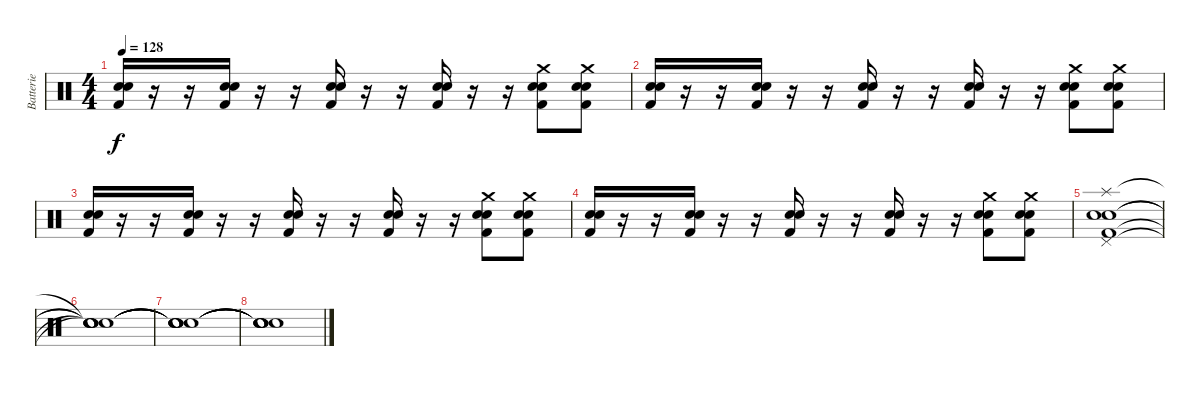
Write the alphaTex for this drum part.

\track ("Batterie" "Batterie") {instrument percussion}
\staff {score}
\articulation defaults
\ts (4 4)
\tempo 128
\clef neutral
\ks c
("Electric Snare (hit)" "Snare (hit) 2" "Kick (hit) 2").16{dy f} r.16 r.16 ("Electric Snare (hit)" "Snare (hit) 2" "Kick (hit) 2").16 r.16 r.16 ("Electric Snare (hit)" "Snare (hit) 2" "Kick (hit) 2").16 r.16 r.16 ("Electric Snare (hit)" "Snare (hit) 2" "Kick (hit) 2").16 r.16 r.16 ("Crash medium (hit)" "Snare (hit) 2" "Electric Snare (hit)" "Kick (hit) 2").8 ("Crash medium (hit)" "Snare (hit) 2" "Electric Snare (hit)" "Kick (hit) 2").8 |
("Electric Snare (hit)" "Snare (hit) 2" "Kick (hit) 2").16 r.16 r.16 ("Electric Snare (hit)" "Snare (hit) 2" "Kick (hit) 2").16 r.16 r.16 ("Electric Snare (hit)" "Snare (hit) 2" "Kick (hit) 2").16 r.16 r.16 ("Electric Snare (hit)" "Snare (hit) 2" "Kick (hit) 2").16 r.16 r.16 ("Crash medium (hit)" "Snare (hit) 2" "Electric Snare (hit)" "Kick (hit) 2").8 ("Crash medium (hit)" "Snare (hit) 2" "Electric Snare (hit)" "Kick (hit) 2").8 |
("Electric Snare (hit)" "Snare (hit) 2" "Kick (hit) 2").16 r.16 r.16 ("Electric Snare (hit)" "Snare (hit) 2" "Kick (hit) 2").16 r.16 r.16 ("Electric Snare (hit)" "Snare (hit) 2" "Kick (hit) 2").16 r.16 r.16 ("Electric Snare (hit)" "Snare (hit) 2" "Kick (hit) 2").16 r.16 r.16 ("Crash medium (hit)" "Snare (hit) 2" "Electric Snare (hit)" "Kick (hit) 2").8 ("Crash medium (hit)" "Snare (hit) 2" "Electric Snare (hit)" "Kick (hit) 2").8 |
("Electric Snare (hit)" "Snare (hit) 2" "Kick (hit) 2").16 r.16 r.16 ("Electric Snare (hit)" "Snare (hit) 2" "Kick (hit) 2").16 r.16 r.16 ("Electric Snare (hit)" "Snare (hit) 2" "Kick (hit) 2").16 r.16 r.16 ("Electric Snare (hit)" "Snare (hit) 2" "Kick (hit) 2").16 r.16 r.16 ("Crash medium (hit)" "Snare (hit) 2" "Electric Snare (hit)" "Kick (hit) 2").8 ("Crash medium (hit)" "Snare (hit) 2" "Electric Snare (hit)" "Kick (hit) 2").8 |
("Pedal Hi-Hat (hit)" "Splash (hit)" "Electric Snare (hit)" "Snare (hit) 2" "Kick (hit) 2").1 |
("Snare (hit)"{t} "Snare (hit)"{t} "Snare (hit)"{t} "Snare (hit)"{t} "Snare (hit)"{t}).1 |
("Snare (hit)"{t} "Snare (hit)"{t} "Snare (hit)"{t} "Snare (hit)"{t} "Snare (hit)"{t}).1 |
("Snare (hit)"{t} "Snare (hit)"{t} "Snare (hit)"{t} "Snare (hit)"{t} "Snare (hit)"{t}).1
